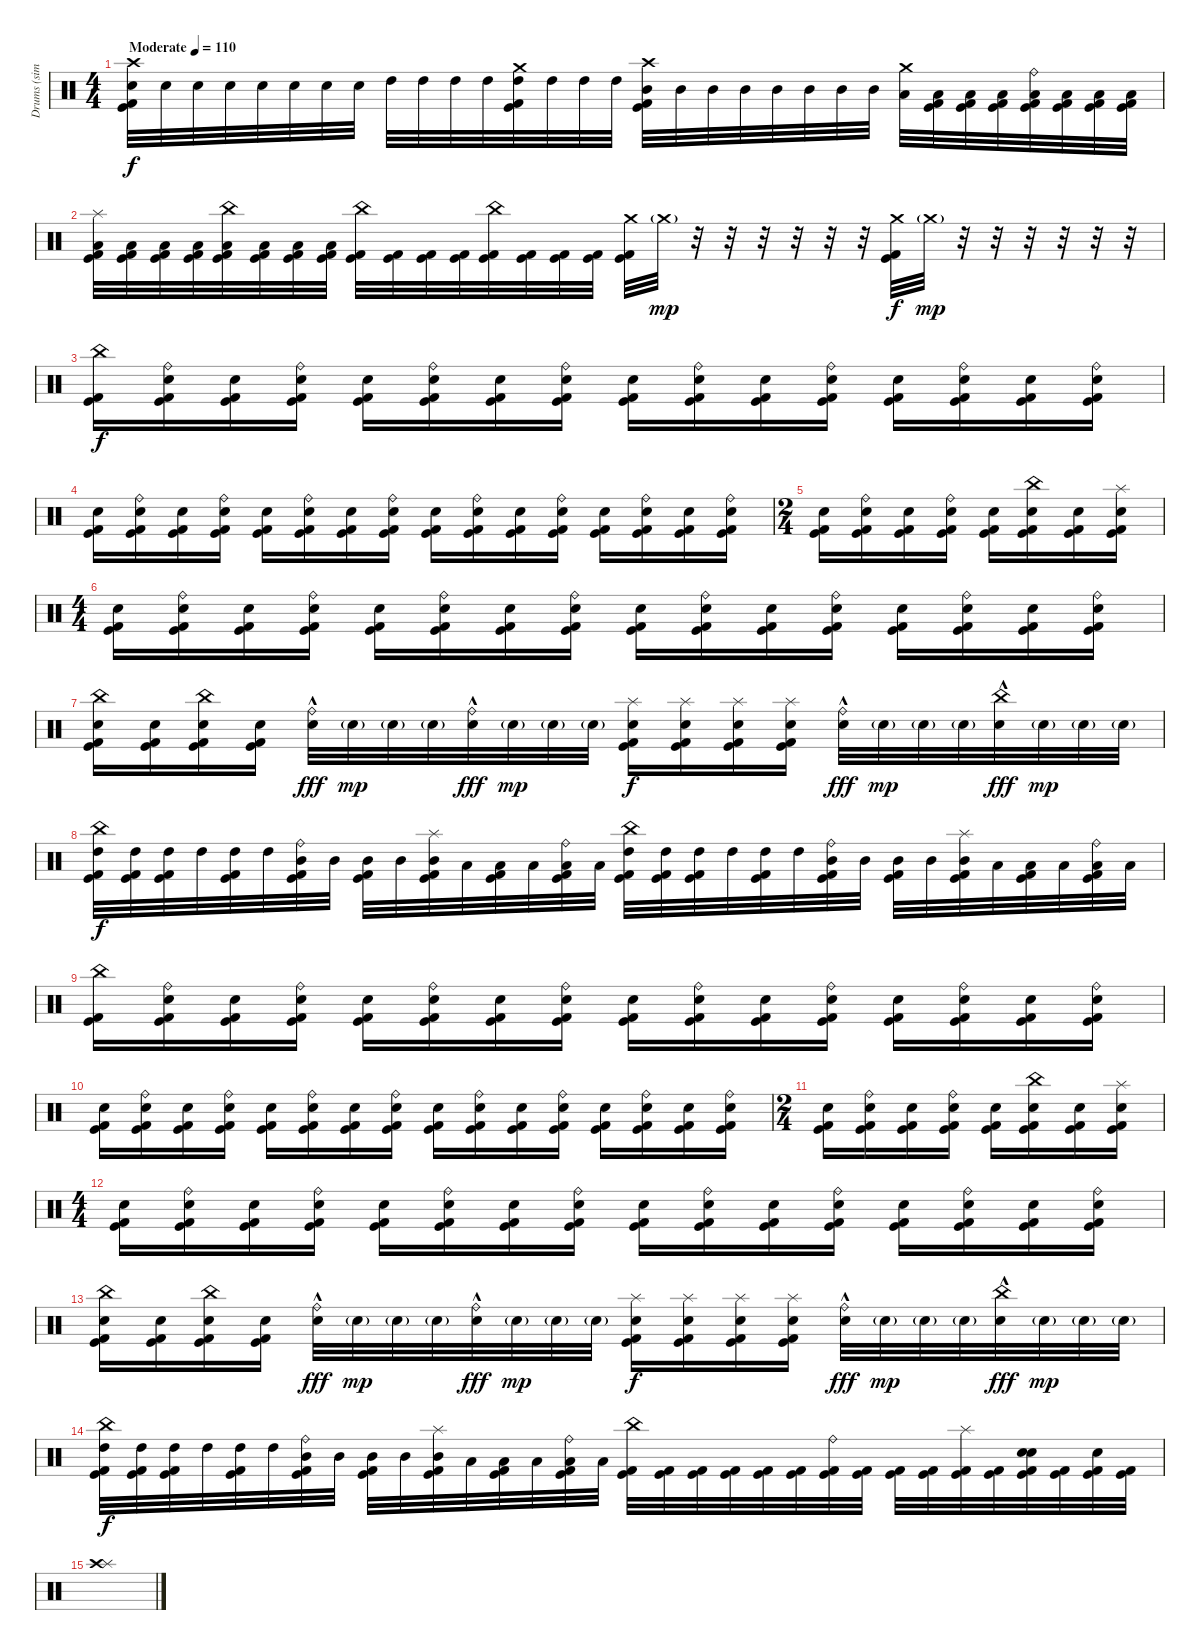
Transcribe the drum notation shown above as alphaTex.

\track ("Drums (simplified)" "Drums (sim") {instrument percussion}
\staff {score}
\articulation defaults
\ts (4 4)
\tempo (110 "Moderate")
\clef neutral
\ks c
("Crash high (hit)" "Snare (hit) 2" "Kick (hit) 2" "Kick (hit)").32{dy f} "Snare (hit) 2".32 "Snare (hit) 2".32 "Snare (hit) 2".32 "Snare (hit) 2".32 "Snare (hit) 2".32 "Snare (hit) 2".32 "Snare (hit) 2".32 "High Tom (hit)".32 "High Tom (hit)".32 "High Tom (hit)".32 "High Tom (hit)".32 ("Crash medium (hit)" "High Tom (hit)" "Kick (hit) 2" "Kick (hit)").32 "High Tom (hit)".32 "High Tom (hit)".32 "High Tom (hit)".32 ("Crash high (hit)" "Mid Tom (hit)" "Kick (hit) 2" "Kick (hit)").32 "Mid Tom (hit)".32 "Mid Tom (hit)".32 "Mid Tom (hit)".32 "Mid Tom (hit)".32 "Mid Tom (hit)".32 "Mid Tom (hit)".32 "Mid Tom (hit)".32 ("Crash medium (hit)" "Low Tom (hit)").32 ("Low Tom (hit)" "Kick (hit) 2" "Kick (hit)").32 ("Low Tom (hit)" "Kick (hit) 2" "Kick (hit)").32 ("Low Tom (hit)" "Kick (hit) 2" "Kick (hit)").32 ("Ride (bell)" "Low Tom (hit)" "Kick (hit) 2" "Kick (hit)").32 ("Low Tom (hit)" "Kick (hit) 2" "Kick (hit)").32 ("Low Tom (hit)" "Kick (hit) 2" "Kick (hit)").32 ("Low Tom (hit)" "Kick (hit) 2" "Kick (hit)").32 |
("Splash (hit)" "Low Tom (hit)" "Kick (hit) 2" "Kick (hit)").32 ("Low Tom (hit)" "Kick (hit) 2" "Kick (hit)").32 ("Low Tom (hit)" "Kick (hit) 2" "Kick (hit)").32 ("Low Tom (hit)" "Kick (hit) 2" "Kick (hit)").32 ("China (hit)" "Low Tom (hit)" "Kick (hit) 2" "Kick (hit)").32 ("Low Tom (hit)" "Kick (hit) 2" "Kick (hit)").32 ("Low Tom (hit)" "Kick (hit) 2" "Kick (hit)").32 ("Low Tom (hit)" "Kick (hit) 2" "Kick (hit)").32 ("China (hit)" "Kick (hit) 2" "Kick (hit)").32 ("Kick (hit) 2" "Kick (hit)").32 ("Kick (hit) 2" "Kick (hit)").32 ("Kick (hit) 2" "Kick (hit)").32 ("China (hit)" "Kick (hit) 2" "Kick (hit)").32 ("Kick (hit) 2" "Kick (hit)").32 ("Kick (hit) 2" "Kick (hit)").32 ("Kick (hit) 2" "Kick (hit)").32 ("Crash medium (hit)" "Kick (hit) 2" "Kick (hit)").32 "Crash medium (hit)"{g}.32{dy mp} r.32 r.32 r.32 r.32 r.32 r.32 ("Crash medium (hit)" "Kick (hit) 2" "Kick (hit)").32{dy f} "Crash medium (hit)"{g}.32{dy mp} r.32 r.32 r.32 r.32 r.32 r.32 |
("China (hit)" "Kick (hit) 2" "Kick (hit)").16{dy f} ("Ride (bell)" "Snare (hit) 2" "Kick (hit) 2" "Kick (hit)").16 ("Snare (hit) 2" "Kick (hit) 2" "Kick (hit)").16 ("Ride (bell)" "Snare (hit) 2" "Kick (hit) 2" "Kick (hit)").16 ("Snare (hit) 2" "Kick (hit) 2" "Kick (hit)").16 ("Ride (bell)" "Snare (hit) 2" "Kick (hit) 2" "Kick (hit)").16 ("Snare (hit) 2" "Kick (hit) 2" "Kick (hit)").16 ("Ride (bell)" "Snare (hit) 2" "Kick (hit) 2" "Kick (hit)").16 ("Snare (hit) 2" "Kick (hit) 2" "Kick (hit)").16 ("Ride (bell)" "Snare (hit) 2" "Kick (hit) 2" "Kick (hit)").16 ("Snare (hit) 2" "Kick (hit) 2" "Kick (hit)").16 ("Ride (bell)" "Snare (hit) 2" "Kick (hit) 2" "Kick (hit)").16 ("Snare (hit) 2" "Kick (hit) 2" "Kick (hit)").16 ("Ride (bell)" "Snare (hit) 2" "Kick (hit) 2" "Kick (hit)").16 ("Snare (hit) 2" "Kick (hit) 2" "Kick (hit)").16 ("Ride (bell)" "Snare (hit) 2" "Kick (hit) 2" "Kick (hit)").16 |
("Snare (hit) 2" "Kick (hit) 2" "Kick (hit)").16 ("Ride (bell)" "Snare (hit) 2" "Kick (hit) 2" "Kick (hit)").16 ("Snare (hit) 2" "Kick (hit) 2" "Kick (hit)").16 ("Ride (bell)" "Snare (hit) 2" "Kick (hit) 2" "Kick (hit)").16 ("Snare (hit) 2" "Kick (hit) 2" "Kick (hit)").16 ("Ride (bell)" "Snare (hit) 2" "Kick (hit) 2" "Kick (hit)").16 ("Snare (hit) 2" "Kick (hit) 2" "Kick (hit)").16 ("Ride (bell)" "Snare (hit) 2" "Kick (hit) 2" "Kick (hit)").16 ("Snare (hit) 2" "Kick (hit) 2" "Kick (hit)").16 ("Ride (bell)" "Snare (hit) 2" "Kick (hit) 2" "Kick (hit)").16 ("Snare (hit) 2" "Kick (hit) 2" "Kick (hit)").16 ("Ride (bell)" "Snare (hit) 2" "Kick (hit) 2" "Kick (hit)").16 ("Snare (hit) 2" "Kick (hit) 2" "Kick (hit)").16 ("Ride (bell)" "Snare (hit) 2" "Kick (hit) 2" "Kick (hit)").16 ("Snare (hit) 2" "Kick (hit) 2" "Kick (hit)").16 ("Ride (bell)" "Snare (hit) 2" "Kick (hit) 2" "Kick (hit)").16 |
\ts (2 4)
("Snare (hit) 2" "Kick (hit) 2" "Kick (hit)").16 ("Ride (bell)" "Snare (hit) 2" "Kick (hit) 2" "Kick (hit)").16 ("Snare (hit) 2" "Kick (hit) 2" "Kick (hit)").16 ("Ride (bell)" "Snare (hit) 2" "Kick (hit) 2" "Kick (hit)").16 ("Snare (hit) 2" "Kick (hit) 2" "Kick (hit)").16 ("China (hit)" "Snare (hit) 2" "Kick (hit) 2" "Kick (hit)").16 ("Snare (hit) 2" "Kick (hit) 2" "Kick (hit)").16 ("Splash (hit)" "Snare (hit) 2" "Kick (hit) 2" "Kick (hit)").16 |
\ts (4 4)
("Snare (hit) 2" "Kick (hit) 2" "Kick (hit)").16 ("Ride (bell)" "Snare (hit) 2" "Kick (hit) 2" "Kick (hit)").16 ("Snare (hit) 2" "Kick (hit) 2" "Kick (hit)").16 ("Ride (bell)" "Snare (hit) 2" "Kick (hit) 2" "Kick (hit)").16 ("Snare (hit) 2" "Kick (hit) 2" "Kick (hit)").16 ("Ride (bell)" "Snare (hit) 2" "Kick (hit) 2" "Kick (hit)").16 ("Snare (hit) 2" "Kick (hit) 2" "Kick (hit)").16 ("Ride (bell)" "Snare (hit) 2" "Kick (hit) 2" "Kick (hit)").16 ("Snare (hit) 2" "Kick (hit) 2" "Kick (hit)").16 ("Ride (bell)" "Snare (hit) 2" "Kick (hit) 2" "Kick (hit)").16 ("Snare (hit) 2" "Kick (hit) 2" "Kick (hit)").16 ("Ride (bell)" "Snare (hit) 2" "Kick (hit) 2" "Kick (hit)").16 ("Snare (hit) 2" "Kick (hit) 2" "Kick (hit)").16 ("Ride (bell)" "Snare (hit) 2" "Kick (hit) 2" "Kick (hit)").16 ("Snare (hit) 2" "Kick (hit) 2" "Kick (hit)").16 ("Ride (bell)" "Snare (hit) 2" "Kick (hit) 2" "Kick (hit)").16 |
("China (hit)" "Snare (hit) 2" "Kick (hit) 2" "Kick (hit)").16 ("Snare (hit) 2" "Kick (hit) 2" "Kick (hit)").16 ("China (hit)" "Snare (hit) 2" "Kick (hit) 2" "Kick (hit)").16 ("Snare (hit) 2" "Kick (hit) 2" "Kick (hit)").16 ("Ride (bell)" "Snare (hit) 2"{hac}).32{dy fff} "Snare (hit) 2"{g}.32{dy mp} "Snare (hit) 2"{g}.32 "Snare (hit) 2"{g}.32 ("Ride (bell)" "Snare (hit) 2"{hac}).32{dy fff} "Snare (hit) 2"{g}.32{dy mp} "Snare (hit) 2"{g}.32 "Snare (hit) 2"{g}.32 ("Splash (hit)" "Snare (hit) 2" "Kick (hit) 2" "Kick (hit)").16{dy f} ("Splash (hit)" "Snare (hit) 2" "Kick (hit) 2" "Kick (hit)").16 ("Splash (hit)" "Snare (hit) 2" "Kick (hit) 2" "Kick (hit)").16 ("Splash (hit)" "Snare (hit) 2" "Kick (hit) 2" "Kick (hit)").16 ("Ride (bell)" "Snare (hit) 2"{hac}).32{dy fff} "Snare (hit) 2"{g}.32{dy mp} "Snare (hit) 2"{g}.32 "Snare (hit) 2"{g}.32 ("China (hit)" "Snare (hit) 2"{hac}).32{dy fff} "Snare (hit) 2"{g}.32{dy mp} "Snare (hit) 2"{g}.32 "Snare (hit) 2"{g}.32 |
("China (hit)" "High Tom (hit)" "Kick (hit) 2" "Kick (hit)").32{dy f} ("High Tom (hit)" "Kick (hit) 2" "Kick (hit)").32 ("High Tom (hit)" "Kick (hit) 2" "Kick (hit)").32 "High Tom (hit)".32 ("High Tom (hit)" "Kick (hit) 2" "Kick (hit)").32 "High Tom (hit)".32 ("Ride (bell)" "Mid Tom (hit)" "Kick (hit) 2" "Kick (hit)").32 "Mid Tom (hit)".32 ("Mid Tom (hit)" "Kick (hit) 2" "Kick (hit)").32 "Mid Tom (hit)".32 ("Splash (hit)" "Mid Tom (hit)" "Kick (hit) 2" "Kick (hit)").32 "Low Tom (hit)".32 ("Low Tom (hit)" "Kick (hit) 2" "Kick (hit)").32 "Low Tom (hit)".32 ("Ride (bell)" "Low Tom (hit)" "Kick (hit) 2" "Kick (hit)").32 "Low Tom (hit)".32 ("China (hit)" "High Tom (hit)" "Kick (hit) 2" "Kick (hit)").32 ("High Tom (hit)" "Kick (hit) 2" "Kick (hit)").32 ("High Tom (hit)" "Kick (hit) 2" "Kick (hit)").32 "High Tom (hit)".32 ("High Tom (hit)" "Kick (hit) 2" "Kick (hit)").32 "High Tom (hit)".32 ("Ride (bell)" "Mid Tom (hit)" "Kick (hit) 2" "Kick (hit)").32 "Mid Tom (hit)".32 ("Mid Tom (hit)" "Kick (hit) 2" "Kick (hit)").32 "Mid Tom (hit)".32 ("Splash (hit)" "Mid Tom (hit)" "Kick (hit) 2" "Kick (hit)").32 "Low Tom (hit)".32 ("Low Tom (hit)" "Kick (hit) 2" "Kick (hit)").32 "Low Tom (hit)".32 ("Ride (bell)" "Low Tom (hit)" "Kick (hit) 2" "Kick (hit)").32 "Low Tom (hit)".32 |
("China (hit)" "Kick (hit) 2" "Kick (hit)").16 ("Ride (bell)" "Snare (hit) 2" "Kick (hit) 2" "Kick (hit)").16 ("Snare (hit) 2" "Kick (hit) 2" "Kick (hit)").16 ("Ride (bell)" "Snare (hit) 2" "Kick (hit) 2" "Kick (hit)").16 ("Snare (hit) 2" "Kick (hit) 2" "Kick (hit)").16 ("Ride (bell)" "Snare (hit) 2" "Kick (hit) 2" "Kick (hit)").16 ("Snare (hit) 2" "Kick (hit) 2" "Kick (hit)").16 ("Ride (bell)" "Snare (hit) 2" "Kick (hit) 2" "Kick (hit)").16 ("Snare (hit) 2" "Kick (hit) 2" "Kick (hit)").16 ("Ride (bell)" "Snare (hit) 2" "Kick (hit) 2" "Kick (hit)").16 ("Snare (hit) 2" "Kick (hit) 2" "Kick (hit)").16 ("Ride (bell)" "Snare (hit) 2" "Kick (hit) 2" "Kick (hit)").16 ("Snare (hit) 2" "Kick (hit) 2" "Kick (hit)").16 ("Ride (bell)" "Snare (hit) 2" "Kick (hit) 2" "Kick (hit)").16 ("Snare (hit) 2" "Kick (hit) 2" "Kick (hit)").16 ("Ride (bell)" "Snare (hit) 2" "Kick (hit) 2" "Kick (hit)").16 |
("Snare (hit) 2" "Kick (hit) 2" "Kick (hit)").16 ("Ride (bell)" "Snare (hit) 2" "Kick (hit) 2" "Kick (hit)").16 ("Snare (hit) 2" "Kick (hit) 2" "Kick (hit)").16 ("Ride (bell)" "Snare (hit) 2" "Kick (hit) 2" "Kick (hit)").16 ("Snare (hit) 2" "Kick (hit) 2" "Kick (hit)").16 ("Ride (bell)" "Snare (hit) 2" "Kick (hit) 2" "Kick (hit)").16 ("Snare (hit) 2" "Kick (hit) 2" "Kick (hit)").16 ("Ride (bell)" "Snare (hit) 2" "Kick (hit) 2" "Kick (hit)").16 ("Snare (hit) 2" "Kick (hit) 2" "Kick (hit)").16 ("Ride (bell)" "Snare (hit) 2" "Kick (hit) 2" "Kick (hit)").16 ("Snare (hit) 2" "Kick (hit) 2" "Kick (hit)").16 ("Ride (bell)" "Snare (hit) 2" "Kick (hit) 2" "Kick (hit)").16 ("Snare (hit) 2" "Kick (hit) 2" "Kick (hit)").16 ("Ride (bell)" "Snare (hit) 2" "Kick (hit) 2" "Kick (hit)").16 ("Snare (hit) 2" "Kick (hit) 2" "Kick (hit)").16 ("Ride (bell)" "Snare (hit) 2" "Kick (hit) 2" "Kick (hit)").16 |
\ts (2 4)
("Snare (hit) 2" "Kick (hit) 2" "Kick (hit)").16 ("Ride (bell)" "Snare (hit) 2" "Kick (hit) 2" "Kick (hit)").16 ("Snare (hit) 2" "Kick (hit) 2" "Kick (hit)").16 ("Ride (bell)" "Snare (hit) 2" "Kick (hit) 2" "Kick (hit)").16 ("Snare (hit) 2" "Kick (hit) 2" "Kick (hit)").16 ("China (hit)" "Snare (hit) 2" "Kick (hit) 2" "Kick (hit)").16 ("Snare (hit) 2" "Kick (hit) 2" "Kick (hit)").16 ("Splash (hit)" "Snare (hit) 2" "Kick (hit) 2" "Kick (hit)").16 |
\ts (4 4)
("Snare (hit) 2" "Kick (hit) 2" "Kick (hit)").16 ("Ride (bell)" "Snare (hit) 2" "Kick (hit) 2" "Kick (hit)").16 ("Snare (hit) 2" "Kick (hit) 2" "Kick (hit)").16 ("Ride (bell)" "Snare (hit) 2" "Kick (hit) 2" "Kick (hit)").16 ("Snare (hit) 2" "Kick (hit) 2" "Kick (hit)").16 ("Ride (bell)" "Snare (hit) 2" "Kick (hit) 2" "Kick (hit)").16 ("Snare (hit) 2" "Kick (hit) 2" "Kick (hit)").16 ("Ride (bell)" "Snare (hit) 2" "Kick (hit) 2" "Kick (hit)").16 ("Snare (hit) 2" "Kick (hit) 2" "Kick (hit)").16 ("Ride (bell)" "Snare (hit) 2" "Kick (hit) 2" "Kick (hit)").16 ("Snare (hit) 2" "Kick (hit) 2" "Kick (hit)").16 ("Ride (bell)" "Snare (hit) 2" "Kick (hit) 2" "Kick (hit)").16 ("Snare (hit) 2" "Kick (hit) 2" "Kick (hit)").16 ("Ride (bell)" "Snare (hit) 2" "Kick (hit) 2" "Kick (hit)").16 ("Snare (hit) 2" "Kick (hit) 2" "Kick (hit)").16 ("Ride (bell)" "Snare (hit) 2" "Kick (hit) 2" "Kick (hit)").16 |
("China (hit)" "Snare (hit) 2" "Kick (hit) 2" "Kick (hit)").16 ("Snare (hit) 2" "Kick (hit) 2" "Kick (hit)").16 ("China (hit)" "Snare (hit) 2" "Kick (hit) 2" "Kick (hit)").16 ("Snare (hit) 2" "Kick (hit) 2" "Kick (hit)").16 ("Ride (bell)" "Snare (hit) 2"{hac}).32{dy fff} "Snare (hit) 2"{g}.32{dy mp} "Snare (hit) 2"{g}.32 "Snare (hit) 2"{g}.32 ("Ride (bell)" "Snare (hit) 2"{hac}).32{dy fff} "Snare (hit) 2"{g}.32{dy mp} "Snare (hit) 2"{g}.32 "Snare (hit) 2"{g}.32 ("Splash (hit)" "Snare (hit) 2" "Kick (hit) 2" "Kick (hit)").16{dy f} ("Splash (hit)" "Snare (hit) 2" "Kick (hit) 2" "Kick (hit)").16 ("Splash (hit)" "Snare (hit) 2" "Kick (hit) 2" "Kick (hit)").16 ("Splash (hit)" "Snare (hit) 2" "Kick (hit) 2" "Kick (hit)").16 ("Ride (bell)" "Snare (hit) 2"{hac}).32{dy fff} "Snare (hit) 2"{g}.32{dy mp} "Snare (hit) 2"{g}.32 "Snare (hit) 2"{g}.32 ("China (hit)" "Snare (hit) 2"{hac}).32{dy fff} "Snare (hit) 2"{g}.32{dy mp} "Snare (hit) 2"{g}.32 "Snare (hit) 2"{g}.32 |
("China (hit)" "High Tom (hit)" "Kick (hit) 2" "Kick (hit)").32{dy f} ("High Tom (hit)" "Kick (hit) 2" "Kick (hit)").32 ("High Tom (hit)" "Kick (hit) 2" "Kick (hit)").32 "High Tom (hit)".32 ("High Tom (hit)" "Kick (hit) 2" "Kick (hit)").32 "High Tom (hit)".32 ("Ride (bell)" "Mid Tom (hit)" "Kick (hit) 2" "Kick (hit)").32 "Mid Tom (hit)".32 ("Mid Tom (hit)" "Kick (hit) 2" "Kick (hit)").32 "Mid Tom (hit)".32 ("Splash (hit)" "Mid Tom (hit)" "Kick (hit) 2" "Kick (hit)").32 "Low Tom (hit)".32 ("Low Tom (hit)" "Kick (hit) 2" "Kick (hit)").32 "Low Tom (hit)".32 ("Ride (bell)" "Low Tom (hit)" "Kick (hit) 2" "Kick (hit)").32 "Low Tom (hit)".32 ("China (hit)" "Kick (hit) 2" "Kick (hit)").32 ("Kick (hit) 2" "Kick (hit)").32 ("Kick (hit) 2" "Kick (hit)").32 ("Kick (hit) 2" "Kick (hit)").32 ("Kick (hit) 2" "Kick (hit)").32 ("Kick (hit) 2" "Kick (hit)").32 ("Ride (bell)" "Kick (hit) 2" "Kick (hit)").32 ("Kick (hit) 2" "Kick (hit)").32 ("Kick (hit) 2" "Kick (hit)").32 ("Kick (hit) 2" "Kick (hit)").32 ("Splash (hit)" "Kick (hit) 2" "Kick (hit)").32 ("Kick (hit) 2" "Kick (hit)").32 ("Snare (hit) 2" "Snare (hit) 2" "Kick (hit) 2" "Kick (hit)").32 ("Kick (hit) 2" "Kick (hit)").32 ("Snare (hit) 2" "Kick (hit) 2" "Kick (hit)").32 ("Kick (hit) 2" "Kick (hit)").32 |
("Splash (hit)" "Crash high (hit)").1
